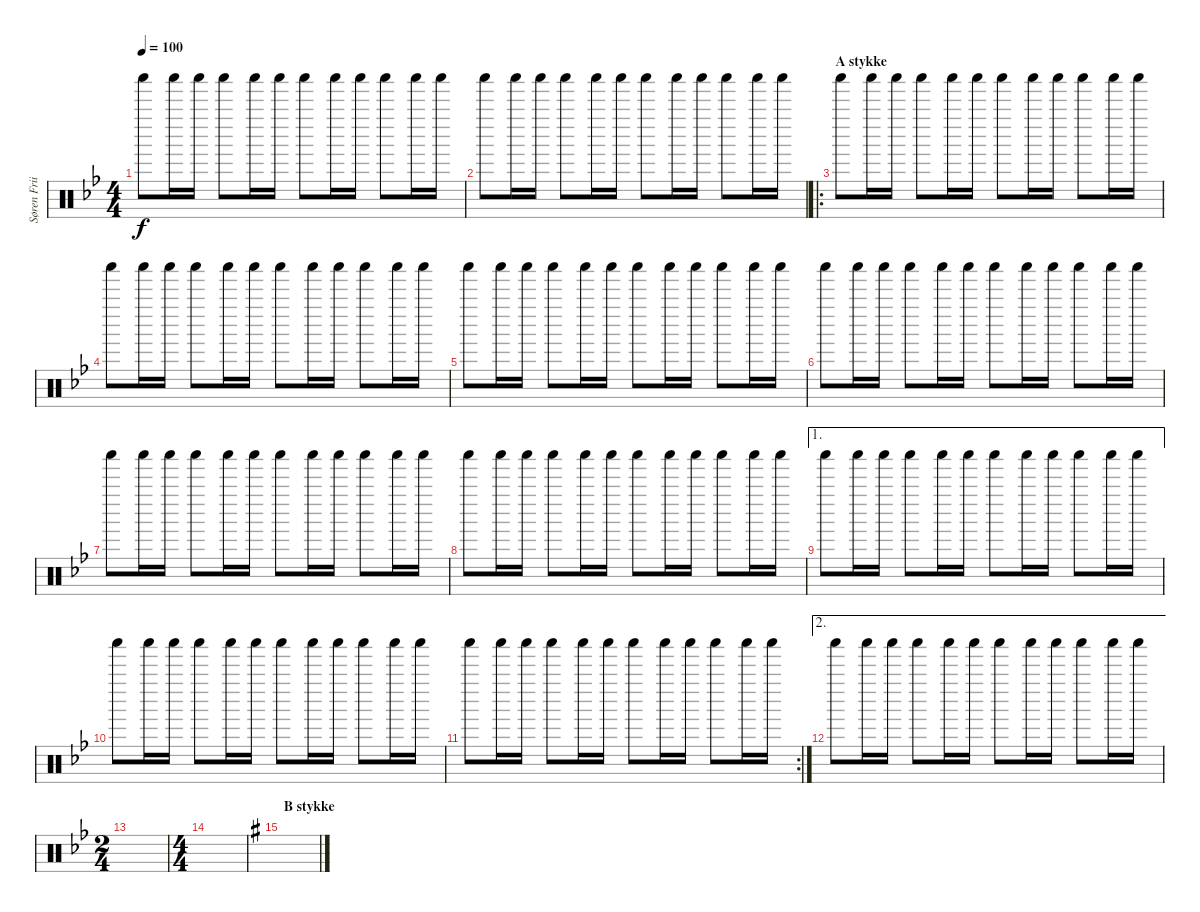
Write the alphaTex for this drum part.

\track ("Søren Friis (Shaker)" "Søren Frii") {instrument percussion}
\staff {score}
\articulation defaults
\ts (4 4)
\tempo 100
\clef neutral
\ks bb "Shaker (hit)".8{dy f} "Shaker (hit)".16 "Shaker (hit)".16 "Shaker (hit)".8 "Shaker (hit)".16 "Shaker (hit)".16 "Shaker (hit)".8 "Shaker (hit)".16 "Shaker (hit)".16 "Shaker (hit)".8 "Shaker (hit)".16 "Shaker (hit)".16
|
"Shaker (hit)".8 "Shaker (hit)".16 "Shaker (hit)".16 "Shaker (hit)".8 "Shaker (hit)".16 "Shaker (hit)".16 "Shaker (hit)".8 "Shaker (hit)".16 "Shaker (hit)".16 "Shaker (hit)".8 "Shaker (hit)".16 "Shaker (hit)".16 |
\ro
\section ("" "A stykke")
"Shaker (hit)".8 "Shaker (hit)".16 "Shaker (hit)".16 "Shaker (hit)".8 "Shaker (hit)".16 "Shaker (hit)".16 "Shaker (hit)".8 "Shaker (hit)".16 "Shaker (hit)".16 "Shaker (hit)".8 "Shaker (hit)".16 "Shaker (hit)".16 |
"Shaker (hit)".8 "Shaker (hit)".16 "Shaker (hit)".16 "Shaker (hit)".8 "Shaker (hit)".16 "Shaker (hit)".16 "Shaker (hit)".8 "Shaker (hit)".16 "Shaker (hit)".16 "Shaker (hit)".8 "Shaker (hit)".16 "Shaker (hit)".16 |
"Shaker (hit)".8 "Shaker (hit)".16 "Shaker (hit)".16 "Shaker (hit)".8 "Shaker (hit)".16 "Shaker (hit)".16 "Shaker (hit)".8 "Shaker (hit)".16 "Shaker (hit)".16 "Shaker (hit)".8 "Shaker (hit)".16 "Shaker (hit)".16 |
"Shaker (hit)".8 "Shaker (hit)".16 "Shaker (hit)".16 "Shaker (hit)".8 "Shaker (hit)".16 "Shaker (hit)".16 "Shaker (hit)".8 "Shaker (hit)".16 "Shaker (hit)".16 "Shaker (hit)".8 "Shaker (hit)".16 "Shaker (hit)".16 |
"Shaker (hit)".8 "Shaker (hit)".16 "Shaker (hit)".16 "Shaker (hit)".8 "Shaker (hit)".16 "Shaker (hit)".16 "Shaker (hit)".8 "Shaker (hit)".16 "Shaker (hit)".16 "Shaker (hit)".8 "Shaker (hit)".16 "Shaker (hit)".16 |
"Shaker (hit)".8 "Shaker (hit)".16 "Shaker (hit)".16 "Shaker (hit)".8 "Shaker (hit)".16 "Shaker (hit)".16 "Shaker (hit)".8 "Shaker (hit)".16 "Shaker (hit)".16 "Shaker (hit)".8 "Shaker (hit)".16 "Shaker (hit)".16 |
\ae 1 "Shaker (hit)".8 "Shaker (hit)".16 "Shaker (hit)".16 "Shaker (hit)".8 "Shaker (hit)".16 "Shaker (hit)".16 "Shaker (hit)".8 "Shaker (hit)".16 "Shaker (hit)".16 "Shaker (hit)".8 "Shaker (hit)".16 "Shaker (hit)".16
|
"Shaker (hit)".8 "Shaker (hit)".16 "Shaker (hit)".16 "Shaker (hit)".8 "Shaker (hit)".16 "Shaker (hit)".16 "Shaker (hit)".8 "Shaker (hit)".16 "Shaker (hit)".16 "Shaker (hit)".8 "Shaker (hit)".16 "Shaker (hit)".16 |
\rc 2 "Shaker (hit)".8 "Shaker (hit)".16 "Shaker (hit)".16 "Shaker (hit)".8 "Shaker (hit)".16 "Shaker (hit)".16 "Shaker (hit)".8 "Shaker (hit)".16 "Shaker (hit)".16 "Shaker (hit)".8 "Shaker (hit)".16 "Shaker (hit)".16
|
\ae 2 "Shaker (hit)".8 "Shaker (hit)".16 "Shaker (hit)".16 "Shaker (hit)".8 "Shaker (hit)".16 "Shaker (hit)".16 "Shaker (hit)".8 "Shaker (hit)".16 "Shaker (hit)".16 "Shaker (hit)".8 "Shaker (hit)".16 "Shaker (hit)".16
|
\ts (2 4)
|
\ts (4 4)
|
\section ("" "B stykke")
\ks g
